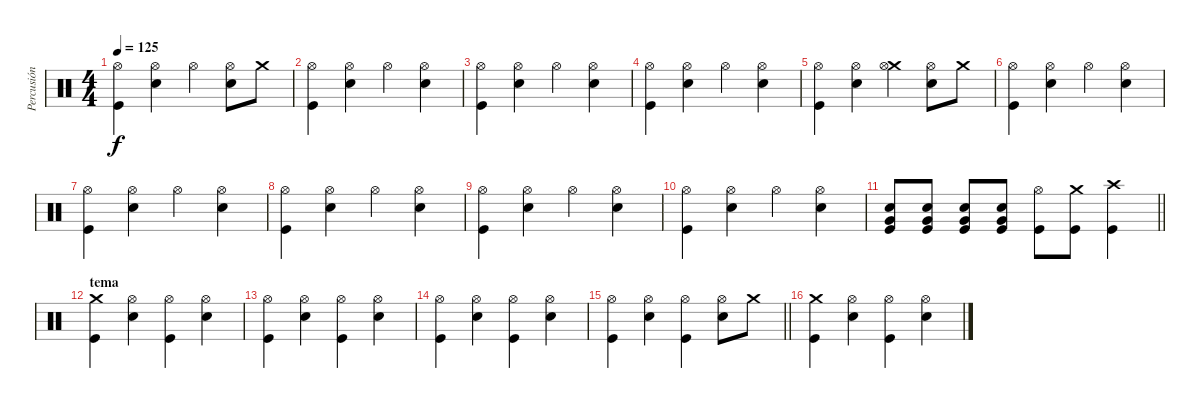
\track ("Percusión" "Percusión") {instrument percussion}
\staff {score}
\articulation defaults
\ts (4 4)
\tempo 125
\clef neutral
\ks c
("Hi-Hat (open)" "Kick (hit)").4{dy f} ("Hi-Hat (open)" "Electric Snare (hit)").4 "Hi-Hat (open)".4 ("Hi-Hat (open)" "Electric Snare (hit)").8 "Crash medium (hit)".8 |
("Hi-Hat (open)" "Kick (hit)").4 ("Hi-Hat (open)" "Electric Snare (hit)").4 "Hi-Hat (open)".4 ("Hi-Hat (open)" "Electric Snare (hit)").4 |
("Hi-Hat (open)" "Kick (hit)").4 ("Hi-Hat (open)" "Electric Snare (hit)").4 "Hi-Hat (open)".4 ("Hi-Hat (open)" "Electric Snare (hit)").4 |
("Hi-Hat (open)" "Kick (hit)").4 ("Hi-Hat (open)" "Electric Snare (hit)").4 "Hi-Hat (open)".4 ("Hi-Hat (open)" "Electric Snare (hit)").4 |
("Hi-Hat (open)" "Kick (hit)").4 ("Hi-Hat (open)" "Electric Snare (hit)").4 ("Crash medium (hit)" "Hi-Hat (open)").4 ("Hi-Hat (open)" "Electric Snare (hit)").8 "Crash medium (hit)".8 |
("Hi-Hat (open)" "Kick (hit)").4 ("Hi-Hat (open)" "Electric Snare (hit)").4 "Hi-Hat (open)".4 ("Hi-Hat (open)" "Electric Snare (hit)").4 |
("Hi-Hat (open)" "Kick (hit)").4 ("Hi-Hat (open)" "Electric Snare (hit)").4 "Hi-Hat (open)".4 ("Hi-Hat (open)" "Electric Snare (hit)").4 |
("Hi-Hat (open)" "Kick (hit)").4 ("Hi-Hat (open)" "Electric Snare (hit)").4 "Hi-Hat (open)".4 ("Hi-Hat (open)" "Electric Snare (hit)").4 |
("Hi-Hat (open)" "Kick (hit)").4 ("Hi-Hat (open)" "Electric Snare (hit)").4 "Hi-Hat (open)".4 ("Hi-Hat (open)" "Electric Snare (hit)").4 |
("Hi-Hat (open)" "Kick (hit)").4 ("Hi-Hat (open)" "Electric Snare (hit)").4 "Hi-Hat (open)".4 ("Hi-Hat (open)" "Electric Snare (hit)").4 |
\barLineRight lightlight
("Electric Snare (hit)" "Very Low Tom (hit)" "Kick (hit)").8 ("Electric Snare (hit)" "Very Low Tom (hit)" "Kick (hit)").8 ("Electric Snare (hit)" "Very Low Tom (hit)" "Kick (hit)").8 ("Electric Snare (hit)" "Very Low Tom (hit)" "Kick (hit)").8 ("Hi-Hat (open)" "Kick (hit)").8 ("Crash medium (hit)" "Kick (hit)").8 ("Crash high (hit)" "Kick (hit)").4 |
\section ("" "tema")
("Crash medium (hit)" "Kick (hit)").4 ("Hi-Hat (open)" "Electric Snare (hit)").4 ("Hi-Hat (open)" "Kick (hit)").4 ("Hi-Hat (open)" "Electric Snare (hit)").4 |
("Hi-Hat (open)" "Kick (hit)").4 ("Hi-Hat (open)" "Electric Snare (hit)").4 ("Hi-Hat (open)" "Kick (hit)").4 ("Hi-Hat (open)" "Electric Snare (hit)").4 |
("Hi-Hat (open)" "Kick (hit)").4 ("Hi-Hat (open)" "Electric Snare (hit)").4 ("Hi-Hat (open)" "Kick (hit)").4 ("Hi-Hat (open)" "Electric Snare (hit)").4 |
\barLineRight lightlight
("Hi-Hat (open)" "Kick (hit)").4 ("Hi-Hat (open)" "Electric Snare (hit)").4 ("Hi-Hat (open)" "Kick (hit)").4 ("Hi-Hat (open)" "Electric Snare (hit)").8 "Crash medium (hit)".8 |
("Crash medium (hit)" "Kick (hit)").4 ("Hi-Hat (open)" "Electric Snare (hit)").4 ("Hi-Hat (open)" "Kick (hit)").4 ("Hi-Hat (open)" "Electric Snare (hit)").4
